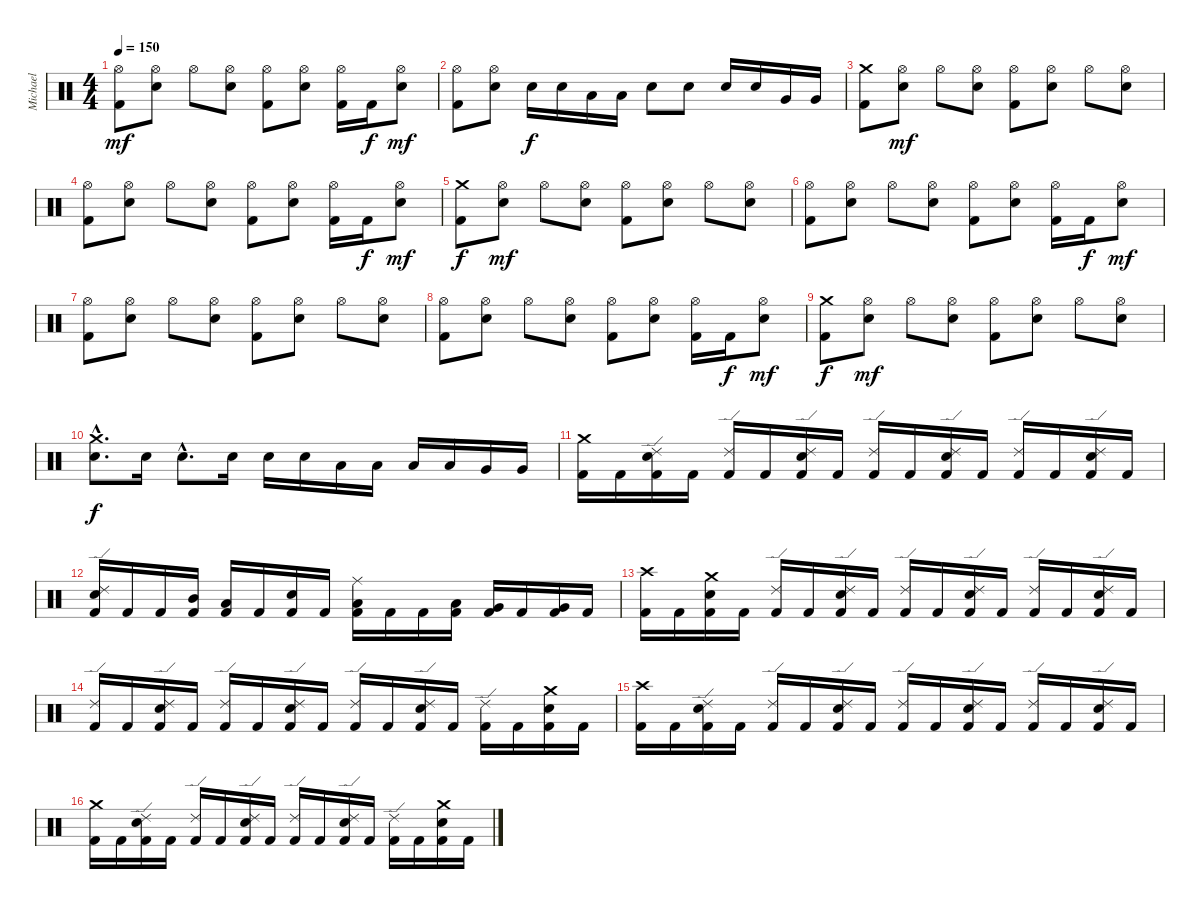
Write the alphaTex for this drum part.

\track ("Michael" "Michael") {instrument percussion}
\staff {score}
\articulation defaults
\ts (4 4)
\tempo 150
\clef neutral
\ks c
("Hi-Hat (open)" "Kick (hit) 2").8{dy mf} ("Hi-Hat (open)" "Electric Snare (hit)").8 "Hi-Hat (open)".8 ("Hi-Hat (open)" "Electric Snare (hit)").8 ("Hi-Hat (open)" "Kick (hit) 2").8 ("Hi-Hat (open)" "Electric Snare (hit)").8 ("Hi-Hat (open)" "Kick (hit) 2").16 "Kick (hit) 2".16{dy f} ("Hi-Hat (open)" "Electric Snare (hit)").8{dy mf} |
("Hi-Hat (open)" "Kick (hit) 2").8 ("Hi-Hat (open)" "Electric Snare (hit)").8 "Electric Snare (hit)".16{dy f} "Electric Snare (hit)".16 "Low Tom (hit)".16 "Low Tom (hit)".16 "Electric Snare (hit)".8 "Electric Snare (hit)".8 "Electric Snare (hit)".16 "Electric Snare (hit)".16 "Very Low Tom (hit)".16 "Very Low Tom (hit)".16 |
("Crash medium (hit)" "Kick (hit) 2").8 ("Hi-Hat (open)" "Electric Snare (hit)").8{dy mf} "Hi-Hat (open)".8 ("Hi-Hat (open)" "Electric Snare (hit)").8 ("Hi-Hat (open)" "Kick (hit) 2").8 ("Hi-Hat (open)" "Electric Snare (hit)").8 "Hi-Hat (open)".8 ("Hi-Hat (open)" "Electric Snare (hit)").8 |
("Hi-Hat (open)" "Kick (hit) 2").8 ("Hi-Hat (open)" "Electric Snare (hit)").8 "Hi-Hat (open)".8 ("Hi-Hat (open)" "Electric Snare (hit)").8 ("Hi-Hat (open)" "Kick (hit) 2").8 ("Hi-Hat (open)" "Electric Snare (hit)").8 ("Hi-Hat (open)" "Kick (hit) 2").16 "Kick (hit) 2".16{dy f} ("Hi-Hat (open)" "Electric Snare (hit)").8{dy mf} |
("Crash medium (hit)" "Kick (hit) 2").8{dy f} ("Hi-Hat (open)" "Electric Snare (hit)").8{dy mf} "Hi-Hat (open)".8 ("Hi-Hat (open)" "Electric Snare (hit)").8 ("Hi-Hat (open)" "Kick (hit) 2").8 ("Hi-Hat (open)" "Electric Snare (hit)").8 "Hi-Hat (open)".8 ("Hi-Hat (open)" "Electric Snare (hit)").8 |
("Hi-Hat (open)" "Kick (hit) 2").8 ("Hi-Hat (open)" "Electric Snare (hit)").8 "Hi-Hat (open)".8 ("Hi-Hat (open)" "Electric Snare (hit)").8 ("Hi-Hat (open)" "Kick (hit) 2").8 ("Hi-Hat (open)" "Electric Snare (hit)").8 ("Hi-Hat (open)" "Kick (hit) 2").16 "Kick (hit) 2".16{dy f} ("Hi-Hat (open)" "Electric Snare (hit)").8{dy mf} |
("Hi-Hat (open)" "Kick (hit) 2").8 ("Hi-Hat (open)" "Electric Snare (hit)").8 "Hi-Hat (open)".8 ("Hi-Hat (open)" "Electric Snare (hit)").8 ("Hi-Hat (open)" "Kick (hit) 2").8 ("Hi-Hat (open)" "Electric Snare (hit)").8 "Hi-Hat (open)".8 ("Hi-Hat (open)" "Electric Snare (hit)").8 |
("Hi-Hat (open)" "Kick (hit) 2").8 ("Hi-Hat (open)" "Electric Snare (hit)").8 "Hi-Hat (open)".8 ("Hi-Hat (open)" "Electric Snare (hit)").8 ("Hi-Hat (open)" "Kick (hit) 2").8 ("Hi-Hat (open)" "Electric Snare (hit)").8 ("Hi-Hat (open)" "Kick (hit) 2").16 "Kick (hit) 2".16{dy f} ("Hi-Hat (open)" "Electric Snare (hit)").8{dy mf} |
("Crash medium (hit)" "Kick (hit) 2").8{dy f} ("Hi-Hat (open)" "Electric Snare (hit)").8{dy mf} "Hi-Hat (open)".8 ("Hi-Hat (open)" "Electric Snare (hit)").8 ("Hi-Hat (open)" "Kick (hit) 2").8 ("Hi-Hat (open)" "Electric Snare (hit)").8 "Hi-Hat (open)".8 ("Hi-Hat (open)" "Electric Snare (hit)").8 |
("Crash medium (hit)"{hac} "Electric Snare (hit)"{hac}).8{d dy f} "Electric Snare (hit)".16 "Electric Snare (hit)"{hac}.8{d} "Electric Snare (hit)".16 "Electric Snare (hit)".16 "Electric Snare (hit)".16 "Low Tom (hit)".16 "Low Tom (hit)".16 "Low Tom (hit)".16 "Low Tom (hit)".16 "Very Low Tom (hit)".16 "Very Low Tom (hit)".16 |
("Crash medium (hit)" "Kick (hit) 2").16 "Kick (hit) 2".16 ("Ride (edge) 2" "Electric Snare (hit)" "Kick (hit) 2").16 "Kick (hit) 2".16 ("Ride (edge) 2" "Kick (hit) 2").16 "Kick (hit) 2".16 ("Ride (edge) 2" "Electric Snare (hit)" "Kick (hit) 2").16 "Kick (hit) 2".16 ("Ride (edge) 2" "Kick (hit) 2").16 "Kick (hit) 2".16 ("Ride (edge) 2" "Electric Snare (hit)" "Kick (hit) 2").16 "Kick (hit) 2".16 ("Ride (edge) 2" "Kick (hit) 2").16 "Kick (hit) 2".16 ("Ride (edge) 2" "Electric Snare (hit)" "Kick (hit) 2").16 "Kick (hit) 2".16 |
("Ride (edge) 2" "Electric Snare (hit)" "Kick (hit) 2").16 "Kick (hit) 2".16 "Kick (hit) 2".16 ("Mid Tom (hit)" "Kick (hit) 2").16 ("Low Tom (hit)" "Kick (hit) 2").16 "Kick (hit) 2".16 ("Electric Snare (hit)" "Kick (hit) 2").16 "Kick (hit) 2".16 ("Ride (middle)" "Low Tom (hit)" "Kick (hit) 2").16 "Kick (hit) 2".16 "Kick (hit) 2".16 ("Low Tom (hit)" "Kick (hit) 2").16 ("Very Low Tom (hit)" "Kick (hit) 2").16 "Kick (hit) 2".16 ("Very Low Tom (hit)" "Kick (hit) 2").16 "Kick (hit) 2".16 |
("Crash high (hit)" "Kick (hit) 2").16 "Kick (hit) 2".16 ("Crash medium (hit)" "Electric Snare (hit)" "Kick (hit) 2").16 "Kick (hit) 2".16 ("Ride (edge) 2" "Kick (hit) 2").16 "Kick (hit) 2".16 ("Ride (edge) 2" "Electric Snare (hit)" "Kick (hit) 2").16 "Kick (hit) 2".16 ("Ride (edge) 2" "Kick (hit) 2").16 "Kick (hit) 2".16 ("Ride (edge) 2" "Electric Snare (hit)" "Kick (hit) 2").16 "Kick (hit) 2".16 ("Ride (edge) 2" "Kick (hit) 2").16 "Kick (hit) 2".16 ("Ride (edge) 2" "Electric Snare (hit)" "Kick (hit) 2").16 "Kick (hit) 2".16 |
("Ride (edge) 2" "Kick (hit) 2").16 "Kick (hit) 2".16 ("Ride (edge) 2" "Electric Snare (hit)" "Kick (hit) 2").16 "Kick (hit) 2".16 ("Ride (edge) 2" "Kick (hit) 2").16 "Kick (hit) 2".16 ("Ride (edge) 2" "Electric Snare (hit)" "Kick (hit) 2").16 "Kick (hit) 2".16 ("Ride (edge) 2" "Kick (hit) 2").16 "Kick (hit) 2".16 ("Ride (edge) 2" "Electric Snare (hit)" "Kick (hit) 2").16 "Kick (hit) 2".16 ("Ride (edge) 2" "Kick (hit) 2").16 "Kick (hit) 2".16 ("Crash medium (hit)" "Electric Snare (hit)" "Kick (hit) 2").16 "Kick (hit) 2".16 |
("Crash high (hit)" "Kick (hit) 2").16 "Kick (hit) 2".16 ("Ride (edge) 2" "Electric Snare (hit)" "Kick (hit) 2").16 "Kick (hit) 2".16 ("Ride (edge) 2" "Kick (hit) 2").16 "Kick (hit) 2".16 ("Ride (edge) 2" "Electric Snare (hit)" "Kick (hit) 2").16 "Kick (hit) 2".16 ("Ride (edge) 2" "Kick (hit) 2").16 "Kick (hit) 2".16 ("Ride (edge) 2" "Electric Snare (hit)" "Kick (hit) 2").16 "Kick (hit) 2".16 ("Ride (edge) 2" "Kick (hit) 2").16 "Kick (hit) 2".16 ("Ride (edge) 2" "Electric Snare (hit)" "Kick (hit) 2").16 "Kick (hit) 2".16 |
("Crash medium (hit)" "Kick (hit) 2").16 "Kick (hit) 2".16 ("Ride (edge) 2" "Electric Snare (hit)" "Kick (hit) 2").16 "Kick (hit) 2".16 ("Ride (edge) 2" "Kick (hit) 2").16 "Kick (hit) 2".16 ("Ride (edge) 2" "Electric Snare (hit)" "Kick (hit) 2").16 "Kick (hit) 2".16 ("Ride (edge) 2" "Kick (hit) 2").16 "Kick (hit) 2".16 ("Ride (edge) 2" "Electric Snare (hit)" "Kick (hit) 2").16 "Kick (hit) 2".16 ("Ride (edge) 2" "Kick (hit) 2").16 "Kick (hit) 2".16 ("Crash medium (hit)" "Electric Snare (hit)" "Kick (hit) 2").16 "Kick (hit) 2".16
